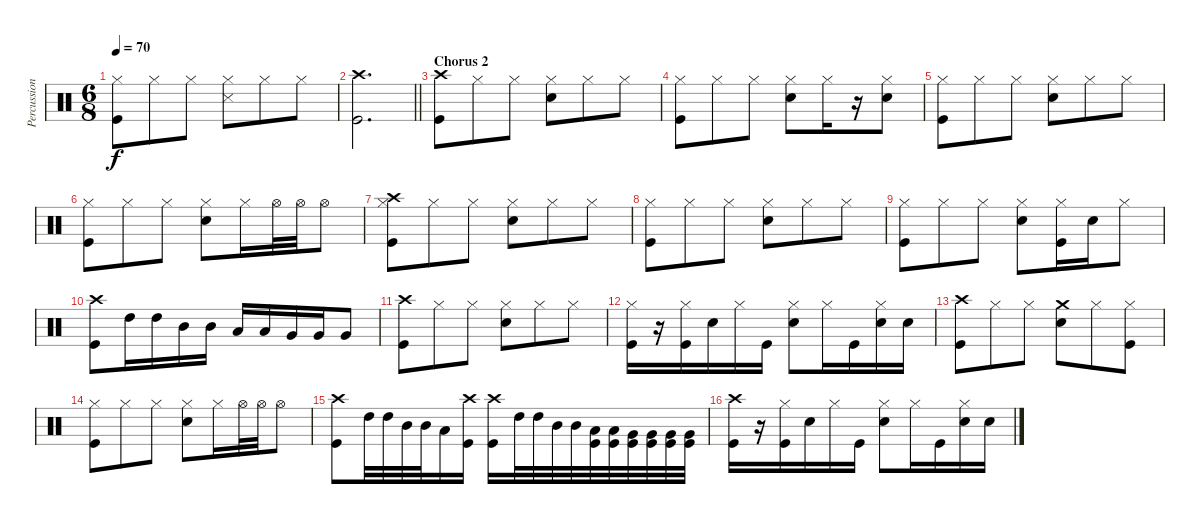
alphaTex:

\track ("Percussion" "Percussion") {instrument percussion}
\staff {score}
\articulation defaults
\ts (6 8)
\tempo 70
\clef neutral
\ks c
("Kick (hit)" "Hi-Hat (closed)").8{dy f} "Hi-Hat (closed)".8 "Hi-Hat (closed)".8 ("Snare (side stick) 3" "Hi-Hat (closed)").8 "Hi-Hat (closed)".8 "Hi-Hat (closed)".8 |
\barLineRight lightlight
("Kick (hit)" "Crash high (hit)").2{d} |
\section ("" "Chorus 2")
("Kick (hit)" "Crash high (hit)").8 "Hi-Hat (closed)".8 "Hi-Hat (closed)".8 ("Electric Snare (hit)" "Hi-Hat (closed)").8 "Hi-Hat (closed)".8 "Hi-Hat (closed)".8 |
("Kick (hit)" "Hi-Hat (closed)").8 "Hi-Hat (closed)".8 "Hi-Hat (closed)".8 ("Electric Snare (hit)" "Hi-Hat (closed)").8 "Hi-Hat (closed)".16 r.16 ("Electric Snare (hit)" "Hi-Hat (closed)").8 |
("Kick (hit)" "Hi-Hat (closed)").8 "Hi-Hat (closed)".8 "Hi-Hat (closed)".8 ("Electric Snare (hit)" "Hi-Hat (closed)").8 "Hi-Hat (closed)".8 "Hi-Hat (closed)".8 |
("Kick (hit)" "Hi-Hat (closed)").8 "Hi-Hat (closed)".8 "Hi-Hat (closed)".8 ("Electric Snare (hit)" "Hi-Hat (closed)").8 "Hi-Hat (closed)".16 "Hi-Hat (open)".32 "Hi-Hat (open)".32 "Hi-Hat (open)".8 |
("Kick (hit)" "Hi-Hat (closed)" "Crash high (hit)").8 "Hi-Hat (closed)".8 "Hi-Hat (closed)".8 ("Electric Snare (hit)" "Hi-Hat (closed)").8 "Hi-Hat (closed)".8 "Hi-Hat (closed)".8 |
("Kick (hit)" "Hi-Hat (closed)").8 "Hi-Hat (closed)".8 "Hi-Hat (closed)".8 ("Electric Snare (hit)" "Hi-Hat (closed)").8 "Hi-Hat (closed)".8 "Hi-Hat (closed)".8 |
("Kick (hit)" "Hi-Hat (closed)").8 "Hi-Hat (closed)".8 "Hi-Hat (closed)".8 ("Electric Snare (hit)" "Hi-Hat (closed)").8 ("Kick (hit)" "Hi-Hat (closed)").16 "Electric Snare (hit)".16 "Hi-Hat (closed)".8 |
("Kick (hit)" "Crash high (hit)").8 "High Tom (hit)".16 "High Tom (hit)".16 "Mid Tom (hit)".16 "Mid Tom (hit)".16 "Low Tom (hit)".16 "Low Tom (hit)".16 "Very Low Tom (hit)".16 "Very Low Tom (hit)".16 "Very Low Tom (hit)".8 |
("Kick (hit)" "Crash high (hit)").8 "Hi-Hat (closed)".8 "Hi-Hat (closed)".8 ("Electric Snare (hit)" "Hi-Hat (closed)").8 "Hi-Hat (closed)".8 "Hi-Hat (closed)".8 |
("Kick (hit)" "Hi-Hat (closed)").16 r.16 ("Kick (hit)" "Hi-Hat (closed)").16 "Electric Snare (hit)".16 "Hi-Hat (closed)".16 "Kick (hit)".16 ("Electric Snare (hit)" "Hi-Hat (closed)").8 "Hi-Hat (closed)".16 "Kick (hit)".16 ("Electric Snare (hit)" "Hi-Hat (closed)").16 "Electric Snare (hit)".16 |
("Kick (hit)" "Crash high (hit)").8 "Hi-Hat (closed)".8 "Hi-Hat (closed)".8 ("Electric Snare (hit)" "Crash medium (hit)").8 "Hi-Hat (closed)".8 ("Kick (hit)" "Hi-Hat (closed)").8 |
("Kick (hit)" "Hi-Hat (closed)").8 "Hi-Hat (closed)".8 "Hi-Hat (closed)".8 ("Electric Snare (hit)" "Hi-Hat (closed)").8 "Hi-Hat (closed)".16 "Hi-Hat (open)".32 "Hi-Hat (open)".32 "Hi-Hat (open)".8 |
("Kick (hit)" "Crash high (hit)").8 "High Tom (hit)".32 "High Tom (hit)".32 "Mid Tom (hit)".32 "Mid Tom (hit)".32 "Low Tom (hit)".16 ("Kick (hit)" "Crash high (hit)").16 ("Kick (hit)" "Crash high (hit)").16 "High Tom (hit)".32 "High Tom (hit)".32 "Mid Tom (hit)".32 "Mid Tom (hit)".32 ("Kick (hit)" "Low Tom (hit)").32 ("Kick (hit)" "Low Tom (hit)").32 ("Kick (hit)" "Very Low Tom (hit)").32 ("Kick (hit)" "Very Low Tom (hit)").32 ("Kick (hit)" "Very Low Tom (hit)").32 ("Kick (hit)" "Very Low Tom (hit)").32 |
("Kick (hit)" "Crash high (hit)").16 r.16 ("Kick (hit)" "Hi-Hat (closed)").16 "Electric Snare (hit)".16 "Hi-Hat (closed)".16 "Kick (hit)".16 ("Electric Snare (hit)" "Hi-Hat (closed)").8 "Hi-Hat (closed)".16 "Kick (hit)".16 ("Electric Snare (hit)" "Hi-Hat (closed)").16 "Electric Snare (hit)".16
